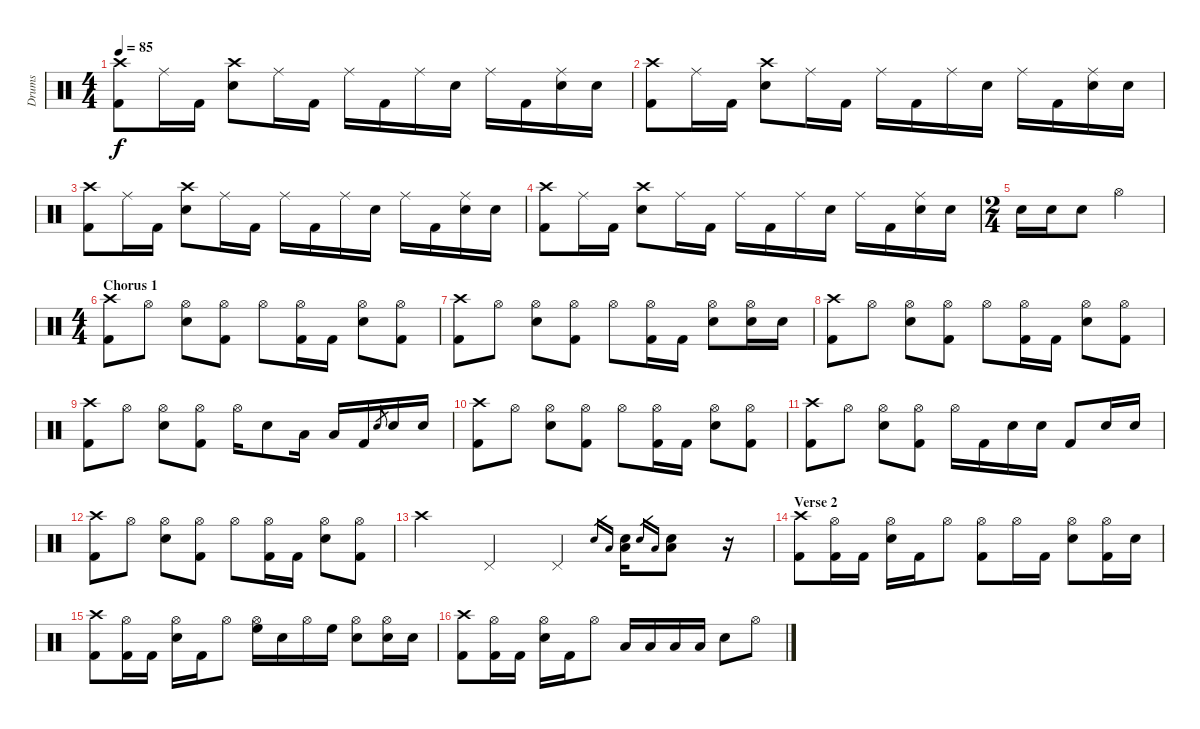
\track ("Drums" "Drums") {instrument percussion}
\staff {score}
\articulation defaults
\ts (4 4)
\tempo 85
\clef neutral
\ks c
("Crash high (hit)" "Kick (hit) 2").8{dy f} "Ride (middle)".16 "Kick (hit) 2".16 ("Crash high (hit)" "Electric Snare (hit)").8 "Ride (middle)".16 "Kick (hit) 2".16 "Ride (middle)".16 "Kick (hit) 2".16 "Ride (middle)".16 "Electric Snare (hit)".16 "Ride (middle)".16 "Kick (hit) 2".16 ("Ride (middle)" "Electric Snare (hit)").16 "Electric Snare (hit)".16 |
("Crash high (hit)" "Kick (hit) 2").8 "Ride (middle)".16 "Kick (hit) 2".16 ("Crash high (hit)" "Electric Snare (hit)").8 "Ride (middle)".16 "Kick (hit) 2".16 "Ride (middle)".16 "Kick (hit) 2".16 "Ride (middle)".16 "Electric Snare (hit)".16 "Ride (middle)".16 "Kick (hit) 2".16 ("Ride (middle)" "Electric Snare (hit)").16 "Electric Snare (hit)".16 |
("Crash high (hit)" "Kick (hit) 2").8 "Ride (middle)".16 "Kick (hit) 2".16 ("Crash high (hit)" "Electric Snare (hit)").8 "Ride (middle)".16 "Kick (hit) 2".16 "Ride (middle)".16 "Kick (hit) 2".16 "Ride (middle)".16 "Electric Snare (hit)".16 "Ride (middle)".16 "Kick (hit) 2".16 ("Ride (middle)" "Electric Snare (hit)").16 "Electric Snare (hit)".16 |
("Crash high (hit)" "Kick (hit) 2").8 "Ride (middle)".16 "Kick (hit) 2".16 ("Crash high (hit)" "Electric Snare (hit)").8 "Ride (middle)".16 "Kick (hit) 2".16 "Ride (middle)".16 "Kick (hit) 2".16 "Ride (middle)".16 "Electric Snare (hit)".16 "Ride (middle)".16 "Kick (hit) 2".16 ("Ride (middle)" "Electric Snare (hit)").16 "Electric Snare (hit)".16 |
\ts (2 4)
"Electric Snare (hit)".16 "Electric Snare (hit)".16 "Electric Snare (hit)".8 "Hi-Hat (open)".4 |
\ts (4 4)
\section ("" "Chorus 1")
("Crash high (hit)" "Kick (hit) 2").8 "Hi-Hat (open)".8 ("Hi-Hat (open)" "Electric Snare (hit)").8 ("Hi-Hat (open)" "Kick (hit) 2").8 "Hi-Hat (open)".8 ("Hi-Hat (open)" "Kick (hit) 2").16 "Kick (hit) 2".16 ("Hi-Hat (open)" "Electric Snare (hit)").8 ("Hi-Hat (open)" "Kick (hit) 2").8 |
("Crash high (hit)" "Kick (hit) 2").8 "Hi-Hat (open)".8 ("Hi-Hat (open)" "Electric Snare (hit)").8 ("Hi-Hat (open)" "Kick (hit) 2").8 "Hi-Hat (open)".8 ("Hi-Hat (open)" "Kick (hit) 2").16 "Kick (hit) 2".16 ("Hi-Hat (open)" "Electric Snare (hit)").8 ("Hi-Hat (open)" "Electric Snare (hit)").16 "Electric Snare (hit)".16 |
("Crash high (hit)" "Kick (hit) 2").8 "Hi-Hat (open)".8 ("Hi-Hat (open)" "Electric Snare (hit)").8 ("Hi-Hat (open)" "Kick (hit) 2").8 "Hi-Hat (open)".8 ("Hi-Hat (open)" "Kick (hit) 2").16 "Kick (hit) 2".16 ("Hi-Hat (open)" "Electric Snare (hit)").8 ("Hi-Hat (open)" "Kick (hit) 2").8 |
("Crash high (hit)" "Kick (hit) 2").8 "Hi-Hat (open)".8 ("Hi-Hat (open)" "Electric Snare (hit)").8 ("Hi-Hat (open)" "Kick (hit) 2").8 "Hi-Hat (open)".16 "Electric Snare (hit)".8 "Low Tom (hit)".16 "Low Floor Tom (hit)".16 "Kick (hit) 2".16 "Electric Snare (hit)".8{gr} "Electric Snare (hit)".16 "Electric Snare (hit)".16 |
("Crash high (hit)" "Kick (hit) 2").8 "Hi-Hat (open)".8 ("Hi-Hat (open)" "Electric Snare (hit)").8 ("Hi-Hat (open)" "Kick (hit) 2").8 "Hi-Hat (open)".8 ("Hi-Hat (open)" "Kick (hit) 2").16 "Kick (hit) 2".16 ("Hi-Hat (open)" "Electric Snare (hit)").8 ("Hi-Hat (open)" "Kick (hit) 2").8 |
("Crash high (hit)" "Kick (hit) 2").8 "Hi-Hat (open)".8 ("Hi-Hat (open)" "Electric Snare (hit)").8 ("Hi-Hat (open)" "Kick (hit) 2").8 "Hi-Hat (open)".16 "Kick (hit) 2".16 "Electric Snare (hit)".16 "Electric Snare (hit)".16 "Kick (hit) 2".8 "Electric Snare (hit)".16 "Electric Snare (hit)".16 |
("Crash high (hit)" "Kick (hit) 2").8 "Hi-Hat (open)".8 ("Hi-Hat (open)" "Electric Snare (hit)").8 ("Hi-Hat (open)" "Kick (hit) 2").8 "Hi-Hat (open)".8 ("Hi-Hat (open)" "Kick (hit) 2").16 "Kick (hit) 2".16 ("Hi-Hat (open)" "Electric Snare (hit)").8 ("Hi-Hat (open)" "Kick (hit) 2").8 |
"Crash high (hit)".4 "Pedal Hi-Hat (hit)".4 "Pedal Hi-Hat (hit)".4 "Electric Snare (hit)".16{gr} "Low Floor Tom (hit)".16{gr} ("Electric Snare (hit)" "Low Floor Tom (hit)").16 "Electric Snare (hit)".16{gr} "Low Floor Tom (hit)".16{gr} ("Electric Snare (hit)" "Low Floor Tom (hit)").8 r.16 |
\section ("" "Verse 2")
("Crash high (hit)" "Kick (hit) 2").8 ("Hi-Hat (open)" "Kick (hit) 2").16 "Kick (hit) 2".16 ("Hi-Hat (open)" "Electric Snare (hit)").16 "Kick (hit) 2".16 "Hi-Hat (open)".8 ("Hi-Hat (open)" "Kick (hit) 2").8 "Hi-Hat (open)".16 "Kick (hit) 2".16 ("Hi-Hat (open)" "Electric Snare (hit)").8 ("Hi-Hat (open)" "Kick (hit) 2").16 "Electric Snare (hit)".16 |
("Crash high (hit)" "Kick (hit) 2").8 ("Hi-Hat (open)" "Kick (hit) 2").16 "Kick (hit) 2".16 ("Hi-Hat (open)" "Electric Snare (hit)").16 "Kick (hit) 2".16 "Hi-Hat (open)".8 ("Hi-Hat (open)" "High Floor Tom (hit)").16 "Electric Snare (hit)".16 "Hi-Hat (open)".16 "High Floor Tom (hit)".16 ("Hi-Hat (open)" "Electric Snare (hit)").8 ("Hi-Hat (open)" "Electric Snare (hit)").16 "Electric Snare (hit)".16 |
("Crash high (hit)" "Kick (hit) 2").8 ("Hi-Hat (open)" "Kick (hit) 2").16 "Kick (hit) 2".16 ("Hi-Hat (open)" "Electric Snare (hit)").16 "Kick (hit) 2".16 "Hi-Hat (open)".8 "Low Floor Tom (hit)".16 "Low Floor Tom (hit)".16 "Low Tom (hit)".16 "Low Tom (hit)".16 "Electric Snare (hit)".8 "Hi-Hat (open)".8
